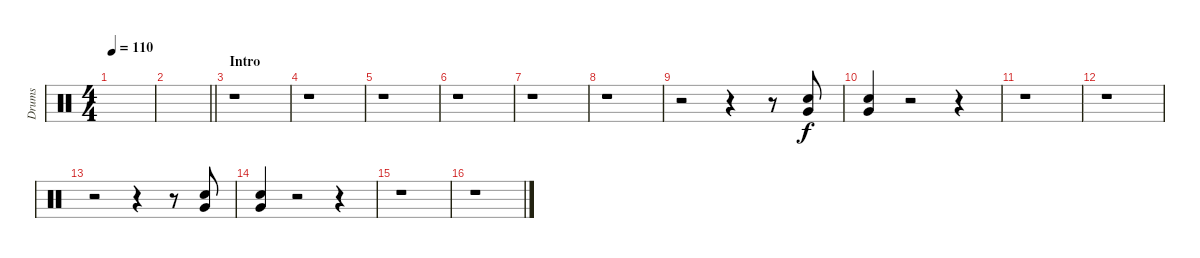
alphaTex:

\track ("Drums" "Drums") {instrument percussion}
\staff {score}
\articulation defaults
\ts (4 4)
\tempo 110
\clef neutral
\ks c
|
\barLineRight lightlight
|
\section ("" "Intro")
r.1 |
r.1 |
r.1 |
r.1 |
r.1 |
r.1 |
r.2 r.4 r.8 ("Very Low Tom (hit)" "Snare (hit) 2").8 |
("Very Low Tom (hit)" "Snare (hit) 2").4 r.2 r.4 |
r.1 |
r.1 |
r.2 r.4 r.8 ("Very Low Tom (hit)" "Snare (hit) 2").8 |
("Very Low Tom (hit)" "Snare (hit) 2").4 r.2 r.4 |
r.1 |
r.1
